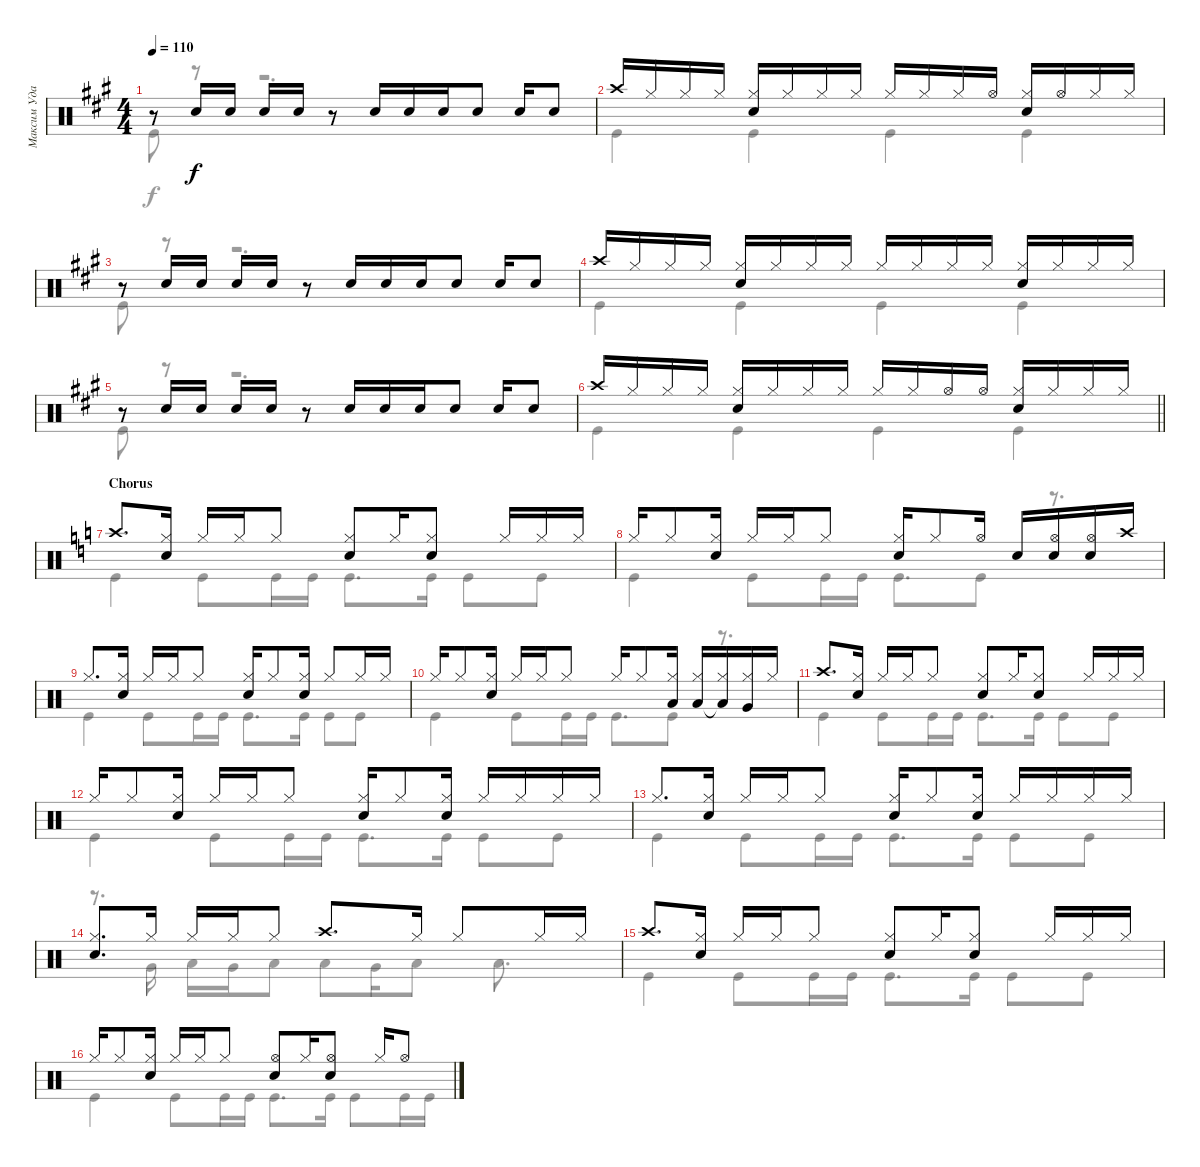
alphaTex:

\track ("Максим Удалов" "Максим Уда") {instrument percussion}
\staff {score}
\articulation defaults
\voice
\ts (4 4)
\tempo 110
\clef neutral
\ks a
r.8{dy f} "Snare (hit) 2".16 "Snare (hit) 2".16 "Snare (hit) 2".16 "Snare (hit) 2".16 r.8 "Snare (hit) 2".16 "Snare (hit) 2".16 "Snare (hit) 2".16 "Snare (hit) 2".8 "Snare (hit) 2".16 "Snare (hit) 2".8 |
"Crash high (hit)".16 "Hi-Hat (closed)".16 "Hi-Hat (closed)".16 "Hi-Hat (closed)".16 ("Hi-Hat (closed)" "Snare (hit) 2").16 "Hi-Hat (closed)".16 "Hi-Hat (closed)".16 "Hi-Hat (closed)".16 "Hi-Hat (closed)".16 "Hi-Hat (closed)".16 "Hi-Hat (closed)".16 "Hi-Hat (open)".16 ("Hi-Hat (closed)" "Snare (hit) 2").16 "Hi-Hat (open)".16 "Hi-Hat (closed)".16 "Hi-Hat (closed)".16 |
r.8 "Snare (hit) 2".16 "Snare (hit) 2".16 "Snare (hit) 2".16 "Snare (hit) 2".16 r.8 "Snare (hit) 2".16 "Snare (hit) 2".16 "Snare (hit) 2".16 "Snare (hit) 2".8 "Snare (hit) 2".16 "Snare (hit) 2".8 |
"Crash high (hit)".16 "Hi-Hat (closed)".16 "Hi-Hat (closed)".16 "Hi-Hat (closed)".16 ("Hi-Hat (closed)" "Snare (hit) 2").16 "Hi-Hat (closed)".16 "Hi-Hat (closed)".16 "Hi-Hat (closed)".16 "Hi-Hat (closed)".16 "Hi-Hat (closed)".16 "Hi-Hat (closed)".16 "Hi-Hat (closed)".16 ("Hi-Hat (closed)" "Snare (hit) 2").16 "Hi-Hat (closed)".16 "Hi-Hat (closed)".16 "Hi-Hat (closed)".16 |
r.8 "Snare (hit) 2".16 "Snare (hit) 2".16 "Snare (hit) 2".16 "Snare (hit) 2".16 r.8 "Snare (hit) 2".16 "Snare (hit) 2".16 "Snare (hit) 2".16 "Snare (hit) 2".8 "Snare (hit) 2".16 "Snare (hit) 2".8 |
\barLineRight lightlight "Crash high (hit)".16 "Hi-Hat (closed)".16 "Hi-Hat (closed)".16 "Hi-Hat (closed)".16
("Hi-Hat (closed)" "Snare (hit) 2").16 "Hi-Hat (closed)".16 "Hi-Hat (closed)".16 "Hi-Hat (closed)".16 "Hi-Hat (closed)".16 "Hi-Hat (closed)".16 "Hi-Hat (open)".16 "Hi-Hat (open)".16 ("Hi-Hat (closed)" "Snare (hit) 2").16 "Hi-Hat (closed)".16 "Hi-Hat (closed)".16 "Hi-Hat (closed)".16 |
\section ("" "Chorus")
\ks c "Crash high (hit)".8{d}
("Hi-Hat (closed)" "Snare (hit) 2").16 "Hi-Hat (closed)".16 "Hi-Hat (closed)".16 "Hi-Hat (closed)".8 ("Hi-Hat (closed)" "Snare (hit) 2").8 "Hi-Hat (closed)".16 ("Hi-Hat (closed)" "Snare (hit) 2").8 "Hi-Hat (closed)".16 "Hi-Hat (closed)".16 "Hi-Hat (closed)".16 |
"Hi-Hat (closed)".16 "Hi-Hat (closed)".8 ("Hi-Hat (closed)" "Snare (hit) 2").16 "Hi-Hat (closed)".16 "Hi-Hat (closed)".16 "Hi-Hat (closed)".8 ("Hi-Hat (closed)" "Snare (hit) 2").16 "Hi-Hat (closed)".8 "Hi-Hat (open)".16 "Snare (hit) 2".16 ("Snare (hit) 2" "Hi-Hat (open)").16 ("Snare (hit) 2" "Hi-Hat (open)").16 "Crash high (hit)".16 |
"Hi-Hat (closed)".8{d} ("Snare (hit) 2" "Hi-Hat (closed)").16 "Hi-Hat (closed)".16 "Hi-Hat (closed)".16 "Hi-Hat (closed)".8 ("Hi-Hat (closed)" "Snare (hit) 2").16 "Hi-Hat (closed)".8 ("Hi-Hat (closed)" "Snare (hit) 2").16 "Hi-Hat (closed)".8 "Hi-Hat (closed)".16 "Hi-Hat (closed)".16 |
"Hi-Hat (closed)".16 "Hi-Hat (closed)".8 ("Snare (hit) 2" "Hi-Hat (closed)").16 "Hi-Hat (closed)".16 "Hi-Hat (closed)".16 "Hi-Hat (closed)".8 "Hi-Hat (closed)".16 "Hi-Hat (closed)".8 ("Hi-Hat (closed)" "Low Tom (hit)").16 ("Hi-Hat (closed)" "Low Tom (hit)").16 ("Hi-Hat (closed)" "Low Tom (hit)"{t}).16 ("Hi-Hat (closed)" "Very Low Tom (hit)").16 "Hi-Hat (closed)".16 |
"Crash high (hit)".8{d} ("Hi-Hat (closed)" "Snare (hit) 2").16 "Hi-Hat (closed)".16 "Hi-Hat (closed)".16 "Hi-Hat (closed)".8 ("Hi-Hat (closed)" "Snare (hit) 2").8 "Hi-Hat (closed)".16 ("Hi-Hat (closed)" "Snare (hit) 2").8 "Hi-Hat (closed)".16 "Hi-Hat (closed)".16 "Hi-Hat (closed)".16 |
"Hi-Hat (closed)".16 "Hi-Hat (closed)".8 ("Hi-Hat (closed)" "Snare (hit) 2").16 "Hi-Hat (closed)".16 "Hi-Hat (closed)".16 "Hi-Hat (closed)".8 ("Hi-Hat (closed)" "Snare (hit) 2").16 "Hi-Hat (closed)".8 ("Hi-Hat (closed)" "Snare (hit) 2").16 "Hi-Hat (closed)".16 "Hi-Hat (closed)".16 "Hi-Hat (closed)".16 "Hi-Hat (closed)".16 |
"Hi-Hat (closed)".8{d} ("Snare (hit) 2" "Hi-Hat (closed)").16 "Hi-Hat (closed)".16 "Hi-Hat (closed)".16 "Hi-Hat (closed)".8 ("Hi-Hat (closed)" "Snare (hit) 2").16 "Hi-Hat (closed)".8 ("Hi-Hat (closed)" "Snare (hit) 2").16 "Hi-Hat (closed)".16 "Hi-Hat (closed)".16 "Hi-Hat (closed)".16 "Hi-Hat (closed)".16 |
("Hi-Hat (closed)" "Snare (hit) 2").8{d} "Hi-Hat (closed)".16 "Hi-Hat (closed)".16 "Hi-Hat (closed)".16 "Hi-Hat (closed)".8 "Crash high (hit)".8{d} "Hi-Hat (closed)".16 "Hi-Hat (closed)".8 "Hi-Hat (closed)".16 "Hi-Hat (closed)".16 |
"Crash high (hit)".8{d} ("Hi-Hat (closed)" "Snare (hit) 2").16 "Hi-Hat (closed)".16 "Hi-Hat (closed)".16 "Hi-Hat (closed)".8 ("Hi-Hat (closed)" "Snare (hit) 2").8 "Hi-Hat (closed)".16 ("Hi-Hat (closed)" "Snare (hit) 2").8 "Hi-Hat (closed)".16 "Hi-Hat (closed)".16 "Hi-Hat (closed)".16 |
"Hi-Hat (closed)".16 "Hi-Hat (closed)".8 ("Hi-Hat (closed)" "Snare (hit) 2").16 "Hi-Hat (closed)".16 "Hi-Hat (closed)".16 "Hi-Hat (closed)".8 ("Snare (hit) 2" "Hi-Hat (open)").8 "Hi-Hat (closed)".16 ("Snare (hit) 2" "Hi-Hat (open)").8 "Hi-Hat (closed)".16 "Hi-Hat (open)".8
\voice
\clef neutral
\ottava regular
\simile none
\ks a "Kick (hit)".8{dy f}
r.8 r.2{d} |
"Kick (hit)".4 "Kick (hit)".4 "Kick (hit)".4 "Kick (hit)".4 |
"Kick (hit)".8 r.8 r.2{d} |
"Kick (hit)".4 "Kick (hit)".4 "Kick (hit)".4 "Kick (hit)".4 |
"Kick (hit)".8 r.8 r.2{d} |
\barLineRight lightlight "Kick (hit)".4 "Kick (hit)".4 "Kick (hit)".4 "Kick (hit)".4
|
\ks c "Kick (hit)".4 "Kick (hit)".8 "Kick (hit)".16 "Kick (hit)".16 "Kick (hit)".8{d} "Kick (hit)".16 "Kick (hit)".8 "Kick (hit)".8
|
"Kick (hit)".4 "Kick (hit)".8 "Kick (hit)".16 "Kick (hit)".16 "Kick (hit)".8{d} "Kick (hit)".8 r.8{d} |
"Kick (hit)".4 "Kick (hit)".8 "Kick (hit)".16 "Kick (hit)".16 "Kick (hit)".8{d} "Kick (hit)".16 "Kick (hit)".8 "Kick (hit)".8 |
"Kick (hit)".4 "Kick (hit)".8 "Kick (hit)".16 "Kick (hit)".16 "Kick (hit)".8{d} "Kick (hit)".8 r.8{d} |
"Kick (hit)".4 "Kick (hit)".8 "Kick (hit)".16 "Kick (hit)".16 "Kick (hit)".8{d} "Kick (hit)".16 "Kick (hit)".8 "Kick (hit)".8 |
"Kick (hit)".4 "Kick (hit)".8 "Kick (hit)".16 "Kick (hit)".16 "Kick (hit)".8{d} "Kick (hit)".16 "Kick (hit)".8 "Kick (hit)".8 |
"Kick (hit)".4 "Kick (hit)".8 "Kick (hit)".16 "Kick (hit)".16 "Kick (hit)".8{d} "Kick (hit)".16 "Kick (hit)".8 "Kick (hit)".8 |
r.8{d} "Very Low Tom (hit)".16 "Low Tom (hit)".16 "Very Low Tom (hit)".16 "Low Tom (hit)".8 "Low Tom (hit)".8 "Very Low Tom (hit)".16 "Low Tom (hit)".8 "Low Tom (hit)".8{d} |
"Kick (hit)".4 "Kick (hit)".8 "Kick (hit)".16 "Kick (hit)".16 "Kick (hit)".8{d} "Kick (hit)".16 "Kick (hit)".8 "Kick (hit)".8 |
"Kick (hit)".4 "Kick (hit)".8 "Kick (hit)".16 "Kick (hit)".16 "Kick (hit)".8{d} "Kick (hit)".16 "Kick (hit)".8 "Kick (hit)".16 "Kick (hit)".16
